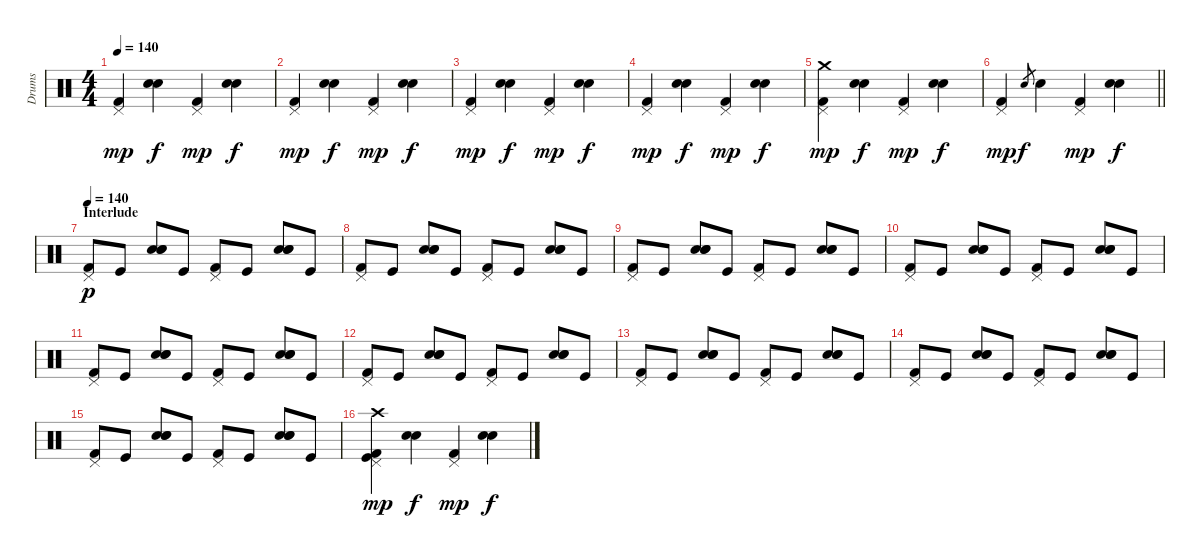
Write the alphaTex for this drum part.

\track ("Drums" "Drums") {instrument percussion}
\staff {score}
\articulation defaults
\ts (4 4)
\tempo 140
\clef neutral
\ks c
("Pedal Hi-Hat (hit)" "Kick (hit) 2").4{dy mp} ("Snare (hit) 2" "Electric Snare (hit)").4{dy f} ("Pedal Hi-Hat (hit)" "Kick (hit) 2").4{dy mp} ("Snare (hit) 2" "Electric Snare (hit)").4{dy f} |
("Pedal Hi-Hat (hit)" "Kick (hit) 2").4{dy mp} ("Snare (hit) 2" "Electric Snare (hit)").4{dy f} ("Pedal Hi-Hat (hit)" "Kick (hit) 2").4{dy mp} ("Snare (hit) 2" "Electric Snare (hit)").4{dy f} |
("Pedal Hi-Hat (hit)" "Kick (hit) 2").4{dy mp} ("Snare (hit) 2" "Electric Snare (hit)").4{dy f} ("Pedal Hi-Hat (hit)" "Kick (hit) 2").4{dy mp} ("Snare (hit) 2" "Electric Snare (hit)").4{dy f} |
("Pedal Hi-Hat (hit)" "Kick (hit) 2").4{dy mp} ("Snare (hit) 2" "Electric Snare (hit)").4{dy f} ("Pedal Hi-Hat (hit)" "Kick (hit) 2").4{dy mp} ("Snare (hit) 2" "Electric Snare (hit)").4{dy f} |
("Pedal Hi-Hat (hit)" "Crash medium (hit)" "Kick (hit) 2").4{dy mp} ("Snare (hit) 2" "Electric Snare (hit)").4{dy f} ("Pedal Hi-Hat (hit)" "Kick (hit) 2").4{dy mp} ("Snare (hit) 2" "Electric Snare (hit)").4{dy f} |
\barLineRight lightlight
("Pedal Hi-Hat (hit)" "Kick (hit) 2").4{dy mp} "Snare (hit) 2".8{gr dy f} "Electric Snare (hit)".4 ("Pedal Hi-Hat (hit)" "Kick (hit) 2").4{dy mp} ("Snare (hit) 2" "Electric Snare (hit)").4{dy f} |
\section ("" "Interlude")
\tempo 140
("Pedal Hi-Hat (hit)" "Kick (hit) 2").8{dy p volume 16} "Kick (hit)".8 ("Hand Clap (hit)" "Snare (hit) 2" "Electric Snare (hit)").8 "Kick (hit)".8 ("Pedal Hi-Hat (hit)" "Kick (hit) 2").8 "Kick (hit)".8 ("Hand Clap (hit)" "Snare (hit) 2" "Electric Snare (hit)").8 "Kick (hit)".8 |
("Pedal Hi-Hat (hit)" "Kick (hit) 2").8 "Kick (hit)".8 ("Hand Clap (hit)" "Snare (hit) 2" "Electric Snare (hit)").8 "Kick (hit)".8 ("Pedal Hi-Hat (hit)" "Kick (hit) 2").8 "Kick (hit)".8 ("Hand Clap (hit)" "Snare (hit) 2" "Electric Snare (hit)").8 "Kick (hit)".8 |
("Pedal Hi-Hat (hit)" "Kick (hit) 2").8 "Kick (hit)".8 ("Hand Clap (hit)" "Snare (hit) 2" "Electric Snare (hit)").8 "Kick (hit)".8 ("Pedal Hi-Hat (hit)" "Kick (hit) 2").8 "Kick (hit)".8 ("Hand Clap (hit)" "Snare (hit) 2" "Electric Snare (hit)").8 "Kick (hit)".8 |
("Pedal Hi-Hat (hit)" "Kick (hit) 2").8 "Kick (hit)".8 ("Hand Clap (hit)" "Snare (hit) 2" "Electric Snare (hit)").8 "Kick (hit)".8 ("Pedal Hi-Hat (hit)" "Kick (hit) 2").8 "Kick (hit)".8 ("Hand Clap (hit)" "Snare (hit) 2" "Electric Snare (hit)").8 "Kick (hit)".8 |
("Pedal Hi-Hat (hit)" "Kick (hit) 2").8 "Kick (hit)".8 ("Hand Clap (hit)" "Snare (hit) 2" "Electric Snare (hit)").8 "Kick (hit)".8 ("Pedal Hi-Hat (hit)" "Kick (hit) 2").8 "Kick (hit)".8 ("Hand Clap (hit)" "Snare (hit) 2" "Electric Snare (hit)").8 "Kick (hit)".8 |
("Pedal Hi-Hat (hit)" "Kick (hit) 2").8 "Kick (hit)".8 ("Hand Clap (hit)" "Snare (hit) 2" "Electric Snare (hit)").8 "Kick (hit)".8 ("Pedal Hi-Hat (hit)" "Kick (hit) 2").8 "Kick (hit)".8 ("Hand Clap (hit)" "Snare (hit) 2" "Electric Snare (hit)").8 "Kick (hit)".8 |
("Pedal Hi-Hat (hit)" "Kick (hit) 2").8 "Kick (hit)".8 ("Hand Clap (hit)" "Snare (hit) 2" "Electric Snare (hit)").8 "Kick (hit)".8 ("Pedal Hi-Hat (hit)" "Kick (hit) 2").8 "Kick (hit)".8 ("Hand Clap (hit)" "Snare (hit) 2" "Electric Snare (hit)").8 "Kick (hit)".8 |
("Pedal Hi-Hat (hit)" "Kick (hit) 2").8 "Kick (hit)".8 ("Hand Clap (hit)" "Snare (hit) 2" "Electric Snare (hit)").8 "Kick (hit)".8 ("Pedal Hi-Hat (hit)" "Kick (hit) 2").8 "Kick (hit)".8 ("Hand Clap (hit)" "Snare (hit) 2" "Electric Snare (hit)").8 "Kick (hit)".8 |
("Pedal Hi-Hat (hit)" "Kick (hit) 2").8 "Kick (hit)".8 ("Hand Clap (hit)" "Snare (hit) 2" "Electric Snare (hit)").8 "Kick (hit)".8 ("Pedal Hi-Hat (hit)" "Kick (hit) 2").8 "Kick (hit)".8 ("Hand Clap (hit)" "Snare (hit) 2" "Electric Snare (hit)").8 "Kick (hit)".8 |
("Pedal Hi-Hat (hit)" "Kick (hit)" "Crash high (hit)" "Kick (hit) 2").4{dy mp volume 13} ("Snare (hit) 2" "Electric Snare (hit)").4{dy f} ("Pedal Hi-Hat (hit)" "Kick (hit) 2").4{dy mp} ("Snare (hit) 2" "Electric Snare (hit)").4{dy f}
